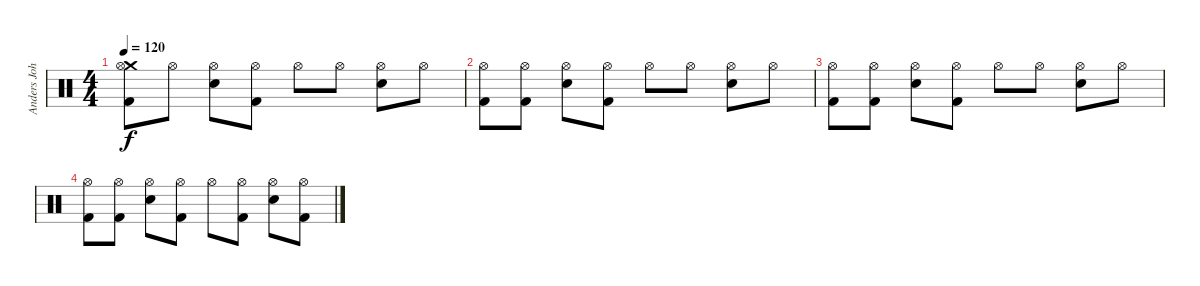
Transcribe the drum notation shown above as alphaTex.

\track ("Anders Johansson" "Anders Joh") {instrument percussion}
\staff {score}
\articulation defaults
\ts (4 4)
\tempo 120
\clef neutral
\ks c
("Crash medium (hit)" "Hi-Hat (open)" "Kick (hit) 2").8{dy f} "Hi-Hat (open)".8 ("Hi-Hat (open)" "Snare (hit) 2").8 ("Hi-Hat (open)" "Kick (hit) 2").8 "Hi-Hat (open)".8 "Hi-Hat (open)".8 ("Hi-Hat (open)" "Snare (hit) 2").8 "Hi-Hat (open)".8 |
("Hi-Hat (open)" "Kick (hit) 2").8 ("Hi-Hat (open)" "Kick (hit) 2").8 ("Hi-Hat (open)" "Snare (hit) 2").8 ("Hi-Hat (open)" "Kick (hit) 2").8 "Hi-Hat (open)".8 "Hi-Hat (open)".8 ("Hi-Hat (open)" "Snare (hit) 2").8 "Hi-Hat (open)".8 |
("Hi-Hat (open)" "Kick (hit) 2").8 ("Hi-Hat (open)" "Kick (hit) 2").8 ("Hi-Hat (open)" "Snare (hit) 2").8 ("Hi-Hat (open)" "Kick (hit) 2").8 "Hi-Hat (open)".8 "Hi-Hat (open)".8 ("Hi-Hat (open)" "Snare (hit) 2").8 "Hi-Hat (open)".8 |
("Hi-Hat (open)" "Kick (hit) 2").8 ("Hi-Hat (open)" "Kick (hit) 2").8 ("Hi-Hat (open)" "Snare (hit) 2").8 ("Hi-Hat (open)" "Kick (hit) 2").8 "Hi-Hat (open)".8 ("Hi-Hat (open)" "Kick (hit) 2").8 ("Hi-Hat (open)" "Snare (hit) 2").8 ("Hi-Hat (open)" "Kick (hit) 2").8
